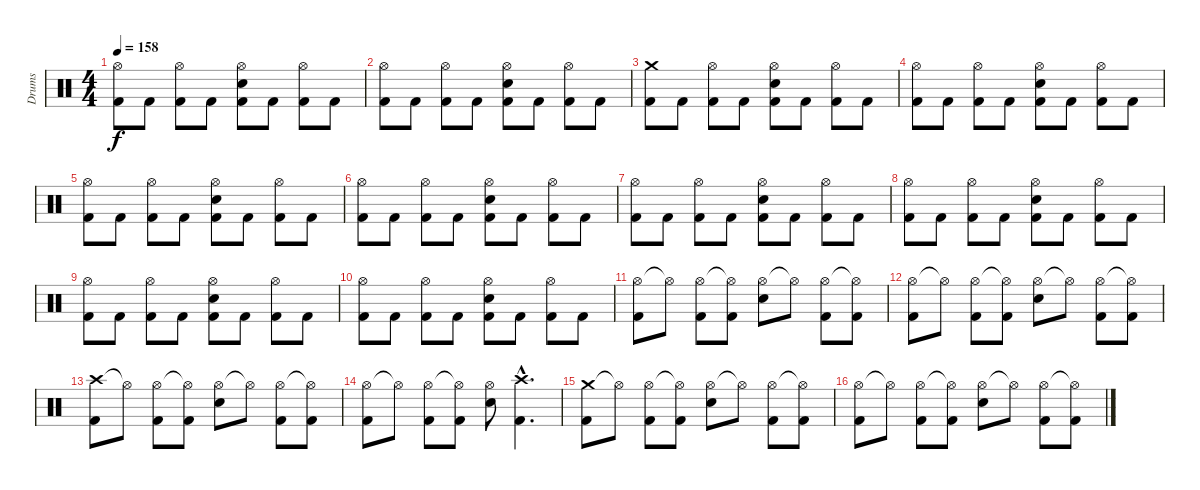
\track ("Drums" "Drums") {instrument percussion}
\staff {score}
\articulation defaults
\ts (4 4)
\tempo 158
\clef neutral
\ks c
("Hi-Hat (open)" "Kick (hit) 2").8{dy f} "Kick (hit) 2".8 ("Hi-Hat (open)" "Kick (hit) 2").8 "Kick (hit) 2".8 ("Hi-Hat (open)" "Snare (hit) 2" "Kick (hit) 2").8 "Kick (hit) 2".8 ("Hi-Hat (open)" "Kick (hit) 2").8 "Kick (hit) 2".8 |
("Hi-Hat (open)" "Kick (hit) 2").8 "Kick (hit) 2".8 ("Hi-Hat (open)" "Kick (hit) 2").8 "Kick (hit) 2".8 ("Hi-Hat (open)" "Snare (hit) 2" "Kick (hit) 2").8 "Kick (hit) 2".8 ("Hi-Hat (open)" "Kick (hit) 2").8 "Kick (hit) 2".8 |
("Crash medium (hit)" "Kick (hit) 2").8 "Kick (hit) 2".8 ("Hi-Hat (open)" "Kick (hit) 2").8 "Kick (hit) 2".8 ("Hi-Hat (open)" "Snare (hit) 2" "Kick (hit) 2").8 "Kick (hit) 2".8 ("Hi-Hat (open)" "Kick (hit) 2").8 "Kick (hit) 2".8 |
("Hi-Hat (open)" "Kick (hit) 2").8 "Kick (hit) 2".8 ("Hi-Hat (open)" "Kick (hit) 2").8 "Kick (hit) 2".8 ("Hi-Hat (open)" "Snare (hit) 2" "Kick (hit) 2").8 "Kick (hit) 2".8 ("Hi-Hat (open)" "Kick (hit) 2").8 "Kick (hit) 2".8 |
("Hi-Hat (open)" "Kick (hit) 2").8 "Kick (hit) 2".8 ("Hi-Hat (open)" "Kick (hit) 2").8 "Kick (hit) 2".8 ("Hi-Hat (open)" "Snare (hit) 2" "Kick (hit) 2").8 "Kick (hit) 2".8 ("Hi-Hat (open)" "Kick (hit) 2").8 "Kick (hit) 2".8 |
("Hi-Hat (open)" "Kick (hit) 2").8 "Kick (hit) 2".8 ("Hi-Hat (open)" "Kick (hit) 2").8 "Kick (hit) 2".8 ("Hi-Hat (open)" "Snare (hit) 2" "Kick (hit) 2").8 "Kick (hit) 2".8 ("Hi-Hat (open)" "Kick (hit) 2").8 "Kick (hit) 2".8 |
("Hi-Hat (open)" "Kick (hit) 2").8 "Kick (hit) 2".8 ("Hi-Hat (open)" "Kick (hit) 2").8 "Kick (hit) 2".8 ("Hi-Hat (open)" "Snare (hit) 2" "Kick (hit) 2").8 "Kick (hit) 2".8 ("Hi-Hat (open)" "Kick (hit) 2").8 "Kick (hit) 2".8 |
("Hi-Hat (open)" "Kick (hit) 2").8 "Kick (hit) 2".8 ("Hi-Hat (open)" "Kick (hit) 2").8 "Kick (hit) 2".8 ("Hi-Hat (open)" "Snare (hit) 2" "Kick (hit) 2").8 "Kick (hit) 2".8 ("Hi-Hat (open)" "Kick (hit) 2").8 "Kick (hit) 2".8 |
("Hi-Hat (open)" "Kick (hit) 2").8 "Kick (hit) 2".8 ("Hi-Hat (open)" "Kick (hit) 2").8 "Kick (hit) 2".8 ("Hi-Hat (open)" "Snare (hit) 2" "Kick (hit) 2").8 "Kick (hit) 2".8 ("Hi-Hat (open)" "Kick (hit) 2").8 "Kick (hit) 2".8 |
("Hi-Hat (open)" "Kick (hit) 2").8 "Kick (hit) 2".8 ("Hi-Hat (open)" "Kick (hit) 2").8 "Kick (hit) 2".8 ("Hi-Hat (open)" "Snare (hit) 2" "Kick (hit) 2").8 "Kick (hit) 2".8 ("Hi-Hat (open)" "Kick (hit) 2").8 "Kick (hit) 2".8 |
("Hi-Hat (open)" "Kick (hit) 2").8 "Hi-Hat (open)"{t}.8 ("Hi-Hat (open)" "Kick (hit) 2").8 ("Hi-Hat (open)"{t} "Kick (hit) 2").8 ("Hi-Hat (open)" "Snare (hit) 2").8 "Hi-Hat (open)"{t}.8 ("Hi-Hat (open)" "Kick (hit) 2").8 ("Hi-Hat (open)"{t} "Kick (hit) 2").8 |
("Hi-Hat (open)" "Kick (hit) 2").8 "Hi-Hat (open)"{t}.8 ("Hi-Hat (open)" "Kick (hit) 2").8 ("Hi-Hat (open)"{t} "Kick (hit) 2").8 ("Hi-Hat (open)" "Snare (hit) 2").8 "Hi-Hat (open)"{t}.8 ("Hi-Hat (open)" "Kick (hit) 2").8 ("Hi-Hat (open)"{t} "Kick (hit) 2").8 |
("Crash high (hit)" "Kick (hit) 2").8 "Hi-Hat (open)"{t}.8 ("Hi-Hat (open)" "Kick (hit) 2").8 ("Hi-Hat (open)"{t} "Kick (hit) 2").8 ("Hi-Hat (open)" "Snare (hit) 2").8 "Hi-Hat (open)"{t}.8 ("Hi-Hat (open)" "Kick (hit) 2").8 ("Hi-Hat (open)"{t} "Kick (hit) 2").8 |
("Hi-Hat (open)" "Kick (hit) 2").8 "Hi-Hat (open)"{t}.8 ("Hi-Hat (open)" "Kick (hit) 2").8 ("Hi-Hat (open)"{t} "Kick (hit) 2").8 ("Hi-Hat (open)" "Snare (hit) 2").8 ("Crash high (hit)"{hac} "Kick (hit) 2"{hac}).4{d} |
("Crash medium (hit)" "Kick (hit) 2").8 "Hi-Hat (open)"{t}.8 ("Hi-Hat (open)" "Kick (hit) 2").8 ("Hi-Hat (open)"{t} "Kick (hit) 2").8 ("Hi-Hat (open)" "Snare (hit) 2").8 "Hi-Hat (open)"{t}.8 ("Hi-Hat (open)" "Kick (hit) 2").8 ("Hi-Hat (open)"{t} "Kick (hit) 2").8 |
("Hi-Hat (open)" "Kick (hit) 2").8 "Hi-Hat (open)"{t}.8 ("Hi-Hat (open)" "Kick (hit) 2").8 ("Hi-Hat (open)"{t} "Kick (hit) 2").8 ("Hi-Hat (open)" "Snare (hit) 2").8 "Hi-Hat (open)"{t}.8 ("Hi-Hat (open)" "Kick (hit) 2").8 ("Hi-Hat (open)"{t} "Kick (hit) 2").8
